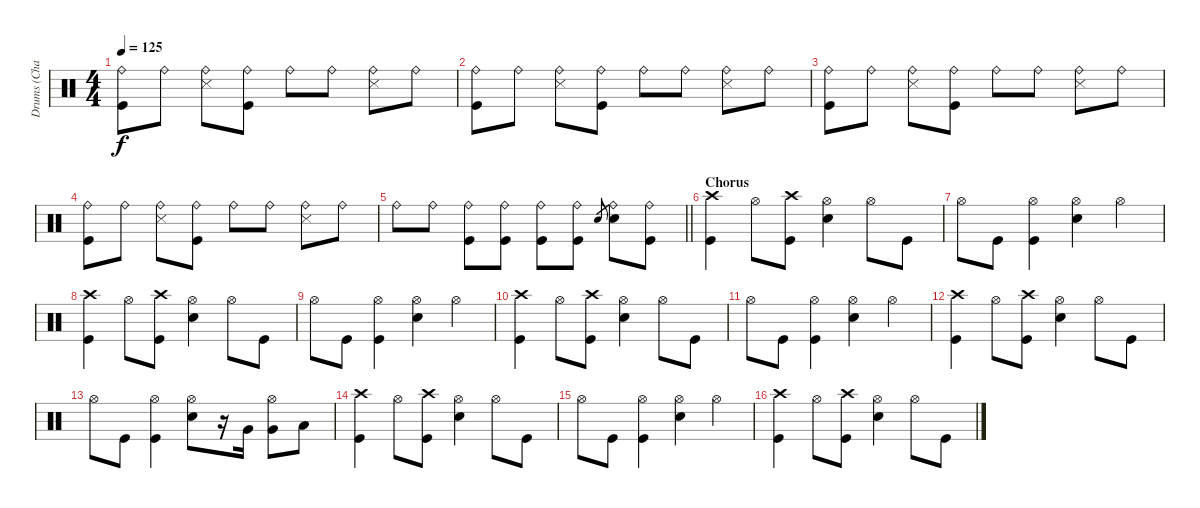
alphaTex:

\track ("Drums (Chad Smith)" "Drums (Cha") {instrument percussion}
\staff {score}
\articulation defaults
\ts (4 4)
\tempo 125
\clef neutral
\ks c
("Ride (bell)" "Kick (hit)").8{dy f} "Ride (bell)".8 ("Ride (bell)" "Snare (side stick) 3").8 ("Ride (bell)" "Kick (hit)").8 "Ride (bell)".8 "Ride (bell)".8 ("Ride (bell)" "Snare (side stick) 3").8 "Ride (bell)".8 |
("Ride (bell)" "Kick (hit)").8 "Ride (bell)".8 ("Ride (bell)" "Snare (side stick) 3").8 ("Ride (bell)" "Kick (hit)").8 "Ride (bell)".8 "Ride (bell)".8 ("Ride (bell)" "Snare (side stick) 3").8 "Ride (bell)".8 |
("Ride (bell)" "Kick (hit)").8 "Ride (bell)".8 ("Ride (bell)" "Snare (side stick) 3").8 ("Ride (bell)" "Kick (hit)").8 "Ride (bell)".8 "Ride (bell)".8 ("Ride (bell)" "Snare (side stick) 3").8 "Ride (bell)".8 |
("Ride (bell)" "Kick (hit)").8 "Ride (bell)".8 ("Ride (bell)" "Snare (side stick) 3").8 ("Ride (bell)" "Kick (hit)").8 "Ride (bell)".8 "Ride (bell)".8 ("Ride (bell)" "Snare (side stick) 3").8 "Ride (bell)".8 |
\barLineRight lightlight "Ride (bell)".8 "Ride (bell)".8
("Ride (bell)" "Kick (hit)").8 ("Ride (bell)" "Kick (hit)").8 ("Ride (bell)" "Kick (hit)").8 ("Ride (bell)" "Kick (hit)").8 "Snare (hit) 2".8{gr} ("Ride (bell)" "Snare (hit) 2").8 ("Ride (bell)" "Kick (hit)").8 |
\section ("" "Chorus")
("Crash high (hit)" "Kick (hit)").4 "Hi-Hat (open)".8 ("Crash high (hit)" "Kick (hit)").8 ("Hi-Hat (open)" "Snare (hit) 2").4 "Hi-Hat (open)".8 "Kick (hit)".8 |
"Hi-Hat (open)".8 "Kick (hit)".8 ("Hi-Hat (open)" "Kick (hit)").4 ("Hi-Hat (open)" "Snare (hit) 2").4 "Hi-Hat (open)".4 |
("Crash high (hit)" "Kick (hit)").4 "Hi-Hat (open)".8 ("Crash high (hit)" "Kick (hit)").8 ("Hi-Hat (open)" "Snare (hit) 2").4 "Hi-Hat (open)".8 "Kick (hit)".8 |
"Hi-Hat (open)".8 "Kick (hit)".8 ("Hi-Hat (open)" "Kick (hit)").4 ("Hi-Hat (open)" "Snare (hit) 2").4 "Hi-Hat (open)".4 |
("Crash high (hit)" "Kick (hit)").4 "Hi-Hat (open)".8 ("Crash high (hit)" "Kick (hit)").8 ("Hi-Hat (open)" "Snare (hit) 2").4 "Hi-Hat (open)".8 "Kick (hit)".8 |
"Hi-Hat (open)".8 "Kick (hit)".8 ("Hi-Hat (open)" "Kick (hit)").4 ("Hi-Hat (open)" "Snare (hit) 2").4 "Hi-Hat (open)".4 |
("Crash high (hit)" "Kick (hit)").4 "Hi-Hat (open)".8 ("Crash high (hit)" "Kick (hit)").8 ("Hi-Hat (open)" "Snare (hit) 2").4 "Hi-Hat (open)".8 "Kick (hit)".8 |
"Hi-Hat (open)".8 "Kick (hit)".8 ("Hi-Hat (open)" "Kick (hit)").4 ("Hi-Hat (open)" "Snare (hit) 2").8 r.16 "Very Low Tom (hit)".16 ("Hi-Hat (open)" "Very Low Tom (hit)").8 "Low Floor Tom (hit)".8 |
("Crash high (hit)" "Kick (hit)").4 "Hi-Hat (open)".8 ("Crash high (hit)" "Kick (hit)").8 ("Hi-Hat (open)" "Snare (hit) 2").4 "Hi-Hat (open)".8 "Kick (hit)".8 |
"Hi-Hat (open)".8 "Kick (hit)".8 ("Hi-Hat (open)" "Kick (hit)").4 ("Hi-Hat (open)" "Snare (hit) 2").4 "Hi-Hat (open)".4 |
("Crash high (hit)" "Kick (hit)").4 "Hi-Hat (open)".8 ("Crash high (hit)" "Kick (hit)").8 ("Hi-Hat (open)" "Snare (hit) 2").4 "Hi-Hat (open)".8 "Kick (hit)".8
